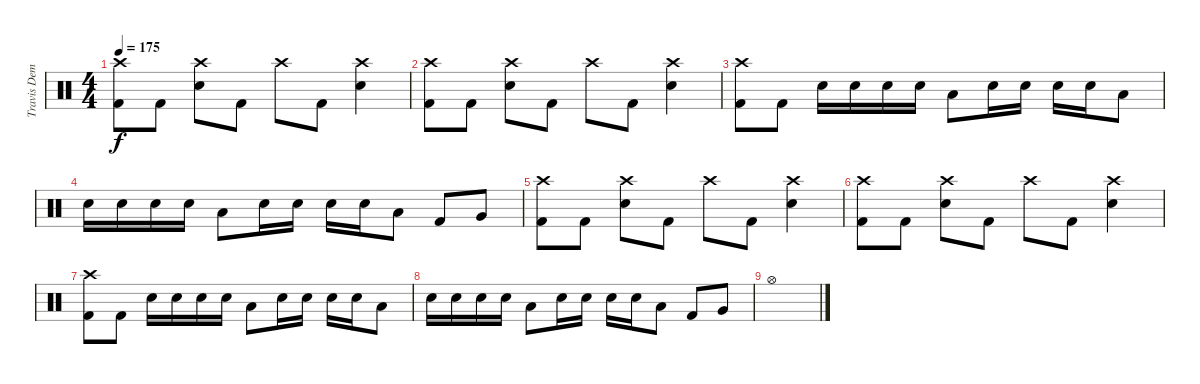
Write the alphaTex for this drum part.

\track ("Travis Dempsey" "Travis Dem") {instrument percussion}
\staff {score}
\articulation defaults
\ts (4 4)
\tempo 175
\clef neutral
\ks c
("Crash high (hit)" "Kick (hit) 2").8{dy f} "Kick (hit) 2".8 ("Crash high (hit)" "Electric Snare (hit)").8 "Kick (hit) 2".8 "Crash high (hit)".8 "Kick (hit) 2".8 ("Crash high (hit)" "Electric Snare (hit)").4 |
("Crash high (hit)" "Kick (hit) 2").8 "Kick (hit) 2".8 ("Crash high (hit)" "Electric Snare (hit)").8 "Kick (hit) 2".8 "Crash high (hit)".8 "Kick (hit) 2".8 ("Crash high (hit)" "Electric Snare (hit)").4 |
("Crash high (hit)" "Kick (hit) 2").8 "Kick (hit) 2".8 "Electric Snare (hit)".16 "Electric Snare (hit)".16 "Electric Snare (hit)".16 "Electric Snare (hit)".16 "Low Tom (hit)".8 "Electric Snare (hit)".16 "Electric Snare (hit)".16 "Electric Snare (hit)".16 "Electric Snare (hit)".16 "Low Tom (hit)".8 |
"Electric Snare (hit)".16 "Electric Snare (hit)".16 "Electric Snare (hit)".16 "Electric Snare (hit)".16 "Low Tom (hit)".8 "Electric Snare (hit)".16 "Electric Snare (hit)".16 "Electric Snare (hit)".16 "Electric Snare (hit)".16 "Low Tom (hit)".8 "Kick (hit) 2".8 "Very Low Tom (hit)".8 |
("Crash high (hit)" "Kick (hit) 2").8 "Kick (hit) 2".8 ("Crash high (hit)" "Electric Snare (hit)").8 "Kick (hit) 2".8 "Crash high (hit)".8 "Kick (hit) 2".8 ("Crash high (hit)" "Electric Snare (hit)").4 |
("Crash high (hit)" "Kick (hit) 2").8 "Kick (hit) 2".8 ("Crash high (hit)" "Electric Snare (hit)").8 "Kick (hit) 2".8 "Crash high (hit)".8 "Kick (hit) 2".8 ("Crash high (hit)" "Electric Snare (hit)").4 |
("Crash high (hit)" "Kick (hit) 2").8 "Kick (hit) 2".8 "Electric Snare (hit)".16 "Electric Snare (hit)".16 "Electric Snare (hit)".16 "Electric Snare (hit)".16 "Low Tom (hit)".8 "Electric Snare (hit)".16 "Electric Snare (hit)".16 "Electric Snare (hit)".16 "Electric Snare (hit)".16 "Low Tom (hit)".8 |
"Electric Snare (hit)".16 "Electric Snare (hit)".16 "Electric Snare (hit)".16 "Electric Snare (hit)".16 "Low Tom (hit)".8 "Electric Snare (hit)".16 "Electric Snare (hit)".16 "Electric Snare (hit)".16 "Electric Snare (hit)".16 "Low Tom (hit)".8 "Kick (hit) 2".8 "Very Low Tom (hit)".8 |
"Hi-Hat (open)".1
